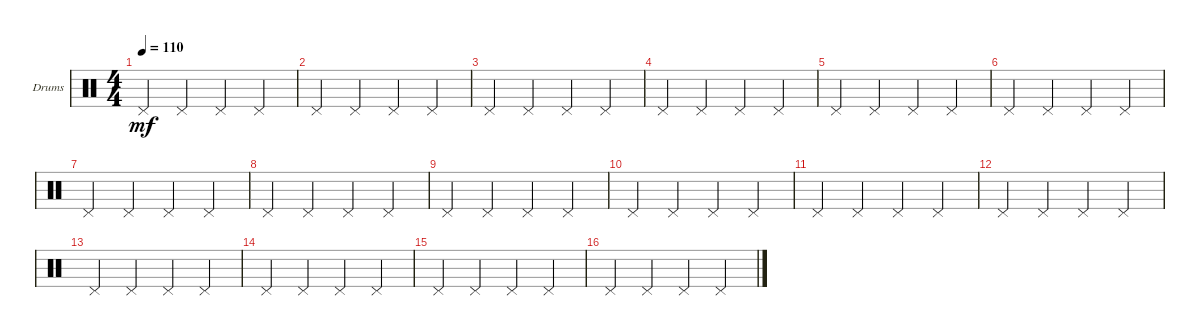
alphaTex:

\defaultSystemsLayout 4
\bracketExtendMode groupsimilarinstruments
\firstSystemTrackNameOrientation horizontal
\otherSystemsTrackNameOrientation horizontal
\track ("Drumkit" "Drums") {instrument percussion}
\staff {score}
\articulation defaults
\ts (4 4)
\tempo 110
\clef neutral
\scale
0.333333
\ks c "Pedal Hi-Hat (hit)".4{dy mf} "Pedal Hi-Hat (hit)".4 "Pedal Hi-Hat (hit)".4 "Pedal Hi-Hat (hit)".4
|
\scale
0.333333 "Pedal Hi-Hat (hit)".4 "Pedal Hi-Hat (hit)".4 "Pedal Hi-Hat (hit)".4 "Pedal Hi-Hat (hit)".4 |
\scale
0.333333 "Pedal Hi-Hat (hit)".4 "Pedal Hi-Hat (hit)".4 "Pedal Hi-Hat (hit)".4 "Pedal Hi-Hat (hit)".4 |
\scale
0.333333 "Pedal Hi-Hat (hit)".4 "Pedal Hi-Hat (hit)".4 "Pedal Hi-Hat (hit)".4 "Pedal Hi-Hat (hit)".4 |
\scale
0.333333 "Pedal Hi-Hat (hit)".4 "Pedal Hi-Hat (hit)".4 "Pedal Hi-Hat (hit)".4 "Pedal Hi-Hat (hit)".4 |
\scale
0.333333 "Pedal Hi-Hat (hit)".4 "Pedal Hi-Hat (hit)".4 "Pedal Hi-Hat (hit)".4 "Pedal Hi-Hat (hit)".4 |
\scale
0.333333 "Pedal Hi-Hat (hit)".4 "Pedal Hi-Hat (hit)".4 "Pedal Hi-Hat (hit)".4 "Pedal Hi-Hat (hit)".4 |
\scale
0.333333 "Pedal Hi-Hat (hit)".4 "Pedal Hi-Hat (hit)".4 "Pedal Hi-Hat (hit)".4 "Pedal Hi-Hat (hit)".4 |
\scale
0.333333 "Pedal Hi-Hat (hit)".4 "Pedal Hi-Hat (hit)".4 "Pedal Hi-Hat (hit)".4 "Pedal Hi-Hat (hit)".4 |
\scale
0.333333 "Pedal Hi-Hat (hit)".4 "Pedal Hi-Hat (hit)".4 "Pedal Hi-Hat (hit)".4 "Pedal Hi-Hat (hit)".4 |
\scale
0.333333 "Pedal Hi-Hat (hit)".4 "Pedal Hi-Hat (hit)".4 "Pedal Hi-Hat (hit)".4 "Pedal Hi-Hat (hit)".4 |
\scale
0.333333 "Pedal Hi-Hat (hit)".4 "Pedal Hi-Hat (hit)".4 "Pedal Hi-Hat (hit)".4 "Pedal Hi-Hat (hit)".4 |
\scale
0.333333 "Pedal Hi-Hat (hit)".4 "Pedal Hi-Hat (hit)".4 "Pedal Hi-Hat (hit)".4 "Pedal Hi-Hat (hit)".4 |
\scale
0.333333 "Pedal Hi-Hat (hit)".4 "Pedal Hi-Hat (hit)".4 "Pedal Hi-Hat (hit)".4 "Pedal Hi-Hat (hit)".4 |
\scale
0.333333 "Pedal Hi-Hat (hit)".4 "Pedal Hi-Hat (hit)".4 "Pedal Hi-Hat (hit)".4 "Pedal Hi-Hat (hit)".4 |
\scale
0.333333 "Pedal Hi-Hat (hit)".4 "Pedal Hi-Hat (hit)".4 "Pedal Hi-Hat (hit)".4 "Pedal Hi-Hat (hit)".4
